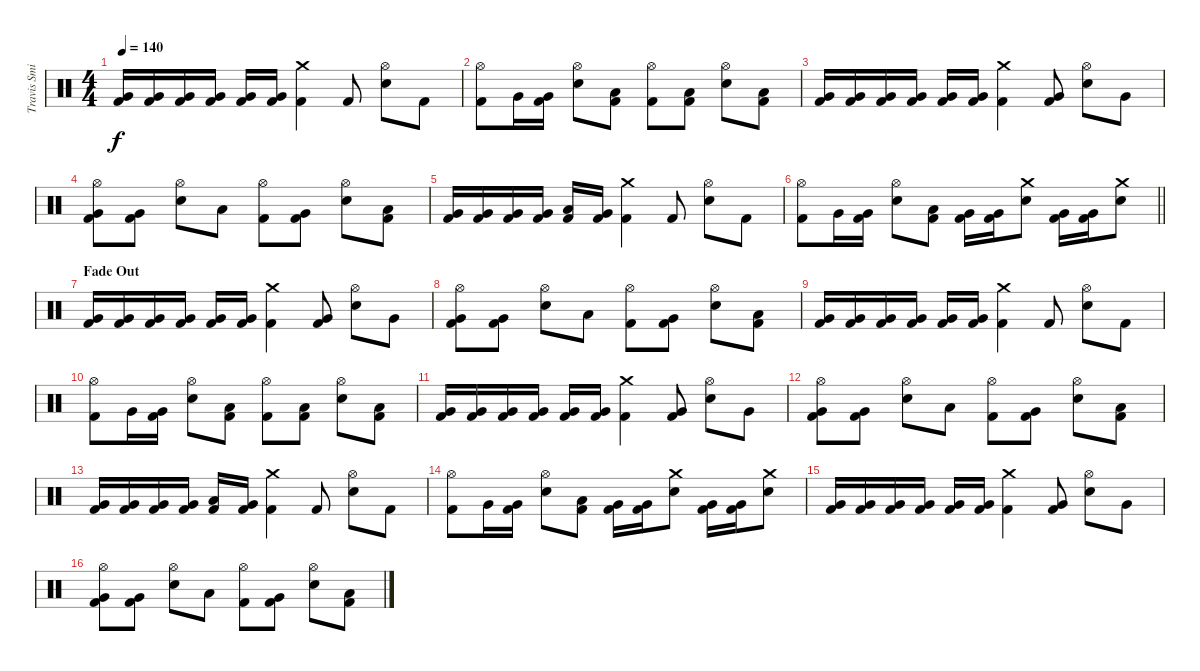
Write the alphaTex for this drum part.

\track ("Travis Smith" "Travis Smi") {instrument percussion}
\staff {score}
\articulation defaults
\ts (4 4)
\tempo 140
\clef neutral
\ks c
("Very Low Tom (hit)" "Kick (hit) 2").16{dy f} ("Very Low Tom (hit)" "Kick (hit) 2").16 ("Very Low Tom (hit)" "Kick (hit) 2").16 ("Very Low Tom (hit)" "Kick (hit) 2").16 ("Very Low Tom (hit)" "Kick (hit) 2").16 ("Very Low Tom (hit)" "Kick (hit) 2").16 ("Crash medium (hit)" "Kick (hit) 2").4 "Kick (hit) 2".8 ("Hi-Hat (open)" "Electric Snare (hit)").8 "Kick (hit) 2".8 |
("Hi-Hat (open)" "Kick (hit) 2").8 "Very Low Tom (hit)".16 ("Very Low Tom (hit)" "Kick (hit) 2").16 ("Hi-Hat (open)" "Electric Snare (hit)").8 ("Low Floor Tom (hit)" "Kick (hit) 2").8 ("Hi-Hat (open)" "Kick (hit) 2").8 ("Low Floor Tom (hit)" "Kick (hit) 2").8 ("Hi-Hat (open)" "Electric Snare (hit)").8 ("Low Floor Tom (hit)" "Kick (hit) 2").8 |
("Very Low Tom (hit)" "Kick (hit) 2").16 ("Very Low Tom (hit)" "Kick (hit) 2").16 ("Very Low Tom (hit)" "Kick (hit) 2").16 ("Very Low Tom (hit)" "Kick (hit) 2").16 ("Very Low Tom (hit)" "Kick (hit) 2").16 ("Very Low Tom (hit)" "Kick (hit) 2").16 ("Crash medium (hit)" "Kick (hit) 2").4 ("Very Low Tom (hit)" "Kick (hit) 2").8 ("Hi-Hat (open)" "Electric Snare (hit)").8 "Very Low Tom (hit)".8 |
("Hi-Hat (open)" "Very Low Tom (hit)" "Kick (hit) 2").8 ("Very Low Tom (hit)" "Kick (hit) 2").8 ("Hi-Hat (open)" "Electric Snare (hit)").8 "Low Floor Tom (hit)".8 ("Hi-Hat (open)" "Kick (hit) 2").8 ("Very Low Tom (hit)" "Kick (hit) 2").8 ("Hi-Hat (open)" "Electric Snare (hit)").8 ("Low Tom (hit)" "Kick (hit) 2").8 |
("Very Low Tom (hit)" "Kick (hit) 2").16 ("Very Low Tom (hit)" "Kick (hit) 2").16 ("Very Low Tom (hit)" "Kick (hit) 2").16 ("Very Low Tom (hit)" "Kick (hit) 2").16 ("Low Tom (hit)" "Kick (hit) 2").16 ("Very Low Tom (hit)" "Kick (hit) 2").16 ("Crash medium (hit)" "Kick (hit) 2").4 "Kick (hit) 2".8 ("Hi-Hat (open)" "Electric Snare (hit)").8 "Kick (hit) 2".8 |
\barLineRight lightlight
("Hi-Hat (open)" "Kick (hit) 2").8 "Very Low Tom (hit)".16 ("Very Low Tom (hit)" "Kick (hit) 2").16 ("Hi-Hat (open)" "Electric Snare (hit)").8 ("Low Floor Tom (hit)" "Kick (hit) 2").8 ("Very Low Tom (hit)" "Kick (hit) 2").16 ("Very Low Tom (hit)" "Kick (hit) 2").16 ("Crash medium (hit)" "Electric Snare (hit)").8 ("Very Low Tom (hit)" "Kick (hit) 2").16 ("Very Low Tom (hit)" "Kick (hit) 2").16 ("Crash medium (hit)" "Electric Snare (hit)").8 |
\section ("" "Fade Out")
("Very Low Tom (hit)" "Kick (hit) 2").16{volume 14} ("Very Low Tom (hit)" "Kick (hit) 2").16 ("Very Low Tom (hit)" "Kick (hit) 2").16 ("Very Low Tom (hit)" "Kick (hit) 2").16 ("Very Low Tom (hit)" "Kick (hit) 2").16 ("Very Low Tom (hit)" "Kick (hit) 2").16 ("Crash medium (hit)" "Kick (hit) 2").4 ("Very Low Tom (hit)" "Kick (hit) 2").8 ("Hi-Hat (open)" "Electric Snare (hit)").8 "Very Low Tom (hit)".8 |
("Hi-Hat (open)" "Very Low Tom (hit)" "Kick (hit) 2").8 ("Very Low Tom (hit)" "Kick (hit) 2").8 ("Hi-Hat (open)" "Electric Snare (hit)").8 "Low Floor Tom (hit)".8 ("Hi-Hat (open)" "Kick (hit) 2").8 ("Very Low Tom (hit)" "Kick (hit) 2").8 ("Hi-Hat (open)" "Electric Snare (hit)").8 ("Low Tom (hit)" "Kick (hit) 2").8 |
("Very Low Tom (hit)" "Kick (hit) 2").16 ("Very Low Tom (hit)" "Kick (hit) 2").16 ("Very Low Tom (hit)" "Kick (hit) 2").16 ("Very Low Tom (hit)" "Kick (hit) 2").16 ("Very Low Tom (hit)" "Kick (hit) 2").16 ("Very Low Tom (hit)" "Kick (hit) 2").16 ("Crash medium (hit)" "Kick (hit) 2").4 "Kick (hit) 2".8 ("Hi-Hat (open)" "Electric Snare (hit)").8 "Kick (hit) 2".8 |
("Hi-Hat (open)" "Kick (hit) 2").8 "Very Low Tom (hit)".16 ("Very Low Tom (hit)" "Kick (hit) 2").16 ("Hi-Hat (open)" "Electric Snare (hit)").8 ("Low Floor Tom (hit)" "Kick (hit) 2").8 ("Hi-Hat (open)" "Kick (hit) 2").8 ("Low Floor Tom (hit)" "Kick (hit) 2").8 ("Hi-Hat (open)" "Electric Snare (hit)").8 ("Low Floor Tom (hit)" "Kick (hit) 2").8 |
("Very Low Tom (hit)" "Kick (hit) 2").16{volume 12} ("Very Low Tom (hit)" "Kick (hit) 2").16 ("Very Low Tom (hit)" "Kick (hit) 2").16 ("Very Low Tom (hit)" "Kick (hit) 2").16 ("Very Low Tom (hit)" "Kick (hit) 2").16 ("Very Low Tom (hit)" "Kick (hit) 2").16 ("Crash medium (hit)" "Kick (hit) 2").4 ("Very Low Tom (hit)" "Kick (hit) 2").8 ("Hi-Hat (open)" "Electric Snare (hit)").8 "Very Low Tom (hit)".8 |
("Hi-Hat (open)" "Very Low Tom (hit)" "Kick (hit) 2").8 ("Very Low Tom (hit)" "Kick (hit) 2").8 ("Hi-Hat (open)" "Electric Snare (hit)").8 "Low Floor Tom (hit)".8 ("Hi-Hat (open)" "Kick (hit) 2").8 ("Very Low Tom (hit)" "Kick (hit) 2").8 ("Hi-Hat (open)" "Electric Snare (hit)").8 ("Low Tom (hit)" "Kick (hit) 2").8 |
("Very Low Tom (hit)" "Kick (hit) 2").16 ("Very Low Tom (hit)" "Kick (hit) 2").16 ("Very Low Tom (hit)" "Kick (hit) 2").16 ("Very Low Tom (hit)" "Kick (hit) 2").16 ("Low Tom (hit)" "Kick (hit) 2").16 ("Very Low Tom (hit)" "Kick (hit) 2").16 ("Crash medium (hit)" "Kick (hit) 2").4 "Kick (hit) 2".8 ("Hi-Hat (open)" "Electric Snare (hit)").8 "Kick (hit) 2".8 |
("Hi-Hat (open)" "Kick (hit) 2").8 "Very Low Tom (hit)".16 ("Very Low Tom (hit)" "Kick (hit) 2").16 ("Hi-Hat (open)" "Electric Snare (hit)").8 ("Low Floor Tom (hit)" "Kick (hit) 2").8 ("Very Low Tom (hit)" "Kick (hit) 2").16 ("Very Low Tom (hit)" "Kick (hit) 2").16 ("Crash medium (hit)" "Electric Snare (hit)").8 ("Very Low Tom (hit)" "Kick (hit) 2").16 ("Very Low Tom (hit)" "Kick (hit) 2").16 ("Crash medium (hit)" "Electric Snare (hit)").8 |
("Very Low Tom (hit)" "Kick (hit) 2").16{volume 10} ("Very Low Tom (hit)" "Kick (hit) 2").16 ("Very Low Tom (hit)" "Kick (hit) 2").16 ("Very Low Tom (hit)" "Kick (hit) 2").16 ("Very Low Tom (hit)" "Kick (hit) 2").16 ("Very Low Tom (hit)" "Kick (hit) 2").16 ("Crash medium (hit)" "Kick (hit) 2").4 ("Very Low Tom (hit)" "Kick (hit) 2").8 ("Hi-Hat (open)" "Electric Snare (hit)").8 "Very Low Tom (hit)".8 |
("Hi-Hat (open)" "Very Low Tom (hit)" "Kick (hit) 2").8 ("Very Low Tom (hit)" "Kick (hit) 2").8 ("Hi-Hat (open)" "Electric Snare (hit)").8 "Low Floor Tom (hit)".8 ("Hi-Hat (open)" "Kick (hit) 2").8 ("Very Low Tom (hit)" "Kick (hit) 2").8 ("Hi-Hat (open)" "Electric Snare (hit)").8 ("Low Tom (hit)" "Kick (hit) 2").8
